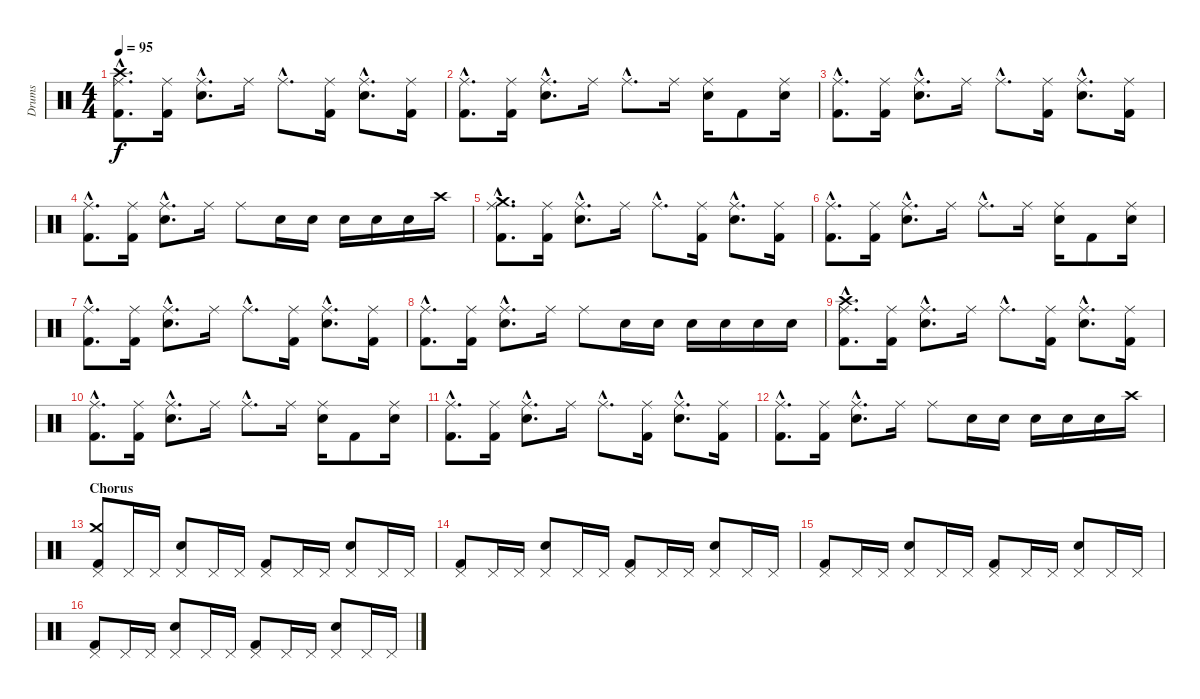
\track ("Drums" "Drums") {instrument percussion}
\staff {score}
\articulation defaults
\ts (4 4)
\tempo 95
\clef neutral
\ks c
("Ride (middle)"{hac} "Crash high (hit)"{hac} "Kick (hit) 2"{hac}).8{d dy f} ("Ride (middle)" "Kick (hit) 2").16 ("Ride (middle)"{hac} "Snare (hit) 2"{hac}).8{d} "Ride (middle)".16 "Ride (middle)"{hac}.8{d} ("Ride (middle)" "Kick (hit) 2").16 ("Ride (middle)"{hac} "Snare (hit) 2"{hac}).8{d} ("Ride (middle)" "Kick (hit) 2").16 |
("Ride (middle)"{hac} "Kick (hit) 2"{hac}).8{d} ("Ride (middle)" "Kick (hit) 2").16 ("Ride (middle)"{hac} "Snare (hit) 2"{hac}).8{d} "Ride (middle)".16 "Ride (middle)"{hac}.8{d} "Ride (middle)".16 ("Ride (middle)" "Snare (hit) 2").16 "Kick (hit) 2".8 ("Ride (middle)" "Snare (hit) 2").16 |
("Ride (middle)"{hac} "Kick (hit) 2"{hac}).8{d} ("Ride (middle)" "Kick (hit) 2").16 ("Ride (middle)"{hac} "Snare (hit) 2"{hac}).8{d} "Ride (middle)".16 "Ride (middle)"{hac}.8{d} ("Ride (middle)" "Kick (hit) 2").16 ("Ride (middle)"{hac} "Snare (hit) 2"{hac}).8{d} ("Ride (middle)" "Kick (hit) 2").16 |
("Ride (middle)"{hac} "Kick (hit) 2"{hac}).8{d} ("Ride (middle)" "Kick (hit) 2").16 ("Ride (middle)"{hac} "Snare (hit) 2"{hac}).8{d} "Ride (middle)".16 "Ride (middle)".8 "Snare (hit) 2".16 "Snare (hit) 2".16 "Snare (hit) 2".16 "Snare (hit) 2".16 "Snare (hit) 2".16 "Crash high (hit)".16 |
("Ride (middle)"{hac} "Crash medium (hit)"{hac} "Kick (hit) 2"{hac}).8{d} ("Ride (middle)" "Kick (hit) 2").16 ("Ride (middle)"{hac} "Snare (hit) 2"{hac}).8{d} "Ride (middle)".16 "Ride (middle)"{hac}.8{d} ("Ride (middle)" "Kick (hit) 2").16 ("Ride (middle)"{hac} "Snare (hit) 2"{hac}).8{d} ("Ride (middle)" "Kick (hit) 2").16 |
("Ride (middle)"{hac} "Kick (hit) 2"{hac}).8{d} ("Ride (middle)" "Kick (hit) 2").16 ("Ride (middle)"{hac} "Snare (hit) 2"{hac}).8{d} "Ride (middle)".16 "Ride (middle)"{hac}.8{d} "Ride (middle)".16 ("Ride (middle)" "Snare (hit) 2").16 "Kick (hit) 2".8 ("Ride (middle)" "Snare (hit) 2").16 |
("Ride (middle)"{hac} "Kick (hit) 2"{hac}).8{d} ("Ride (middle)" "Kick (hit) 2").16 ("Ride (middle)"{hac} "Snare (hit) 2"{hac}).8{d} "Ride (middle)".16 "Ride (middle)"{hac}.8{d} ("Ride (middle)" "Kick (hit) 2").16 ("Ride (middle)"{hac} "Snare (hit) 2"{hac}).8{d} ("Ride (middle)" "Kick (hit) 2").16 |
("Ride (middle)"{hac} "Kick (hit) 2"{hac}).8{d} ("Ride (middle)" "Kick (hit) 2").16 ("Ride (middle)"{hac} "Snare (hit) 2"{hac}).8{d} "Ride (middle)".16 "Ride (middle)".8 "Snare (hit) 2".16 "Snare (hit) 2".16 "Snare (hit) 2".16 "Snare (hit) 2".16 "Snare (hit) 2".16 "Snare (hit) 2".16 |
("Ride (middle)"{hac} "Crash high (hit)"{hac} "Kick (hit) 2"{hac}).8{d} ("Ride (middle)" "Kick (hit) 2").16 ("Ride (middle)"{hac} "Snare (hit) 2"{hac}).8{d} "Ride (middle)".16 "Ride (middle)"{hac}.8{d} ("Ride (middle)" "Kick (hit) 2").16 ("Ride (middle)"{hac} "Snare (hit) 2"{hac}).8{d} ("Ride (middle)" "Kick (hit) 2").16 |
("Ride (middle)"{hac} "Kick (hit) 2"{hac}).8{d} ("Ride (middle)" "Kick (hit) 2").16 ("Ride (middle)"{hac} "Snare (hit) 2"{hac}).8{d} "Ride (middle)".16 "Ride (middle)"{hac}.8{d} "Ride (middle)".16 ("Ride (middle)" "Snare (hit) 2").16 "Kick (hit) 2".8 ("Ride (middle)" "Snare (hit) 2").16 |
("Ride (middle)"{hac} "Kick (hit) 2"{hac}).8{d} ("Ride (middle)" "Kick (hit) 2").16 ("Ride (middle)"{hac} "Snare (hit) 2"{hac}).8{d} "Ride (middle)".16 "Ride (middle)"{hac}.8{d} ("Ride (middle)" "Kick (hit) 2").16 ("Ride (middle)"{hac} "Snare (hit) 2"{hac}).8{d} ("Ride (middle)" "Kick (hit) 2").16 |
("Ride (middle)"{hac} "Kick (hit) 2"{hac}).8{d} ("Ride (middle)" "Kick (hit) 2").16 ("Ride (middle)"{hac} "Snare (hit) 2"{hac}).8{d} "Ride (middle)".16 "Ride (middle)".8 "Snare (hit) 2".16 "Snare (hit) 2".16 "Snare (hit) 2".16 "Snare (hit) 2".16 "Snare (hit) 2".16 "Crash high (hit)".16 |
\section ("" "Chorus")
("Crash medium (hit)" "Pedal Hi-Hat (hit)" "Kick (hit) 2").8 "Pedal Hi-Hat (hit)".16 "Pedal Hi-Hat (hit)".16 ("Pedal Hi-Hat (hit)" "Snare (hit) 2").8 "Pedal Hi-Hat (hit)".16 "Pedal Hi-Hat (hit)".16 ("Pedal Hi-Hat (hit)" "Kick (hit) 2").8 "Pedal Hi-Hat (hit)".16 "Pedal Hi-Hat (hit)".16 ("Pedal Hi-Hat (hit)" "Snare (hit) 2").8 "Pedal Hi-Hat (hit)".16 "Pedal Hi-Hat (hit)".16 |
("Pedal Hi-Hat (hit)" "Kick (hit) 2").8 "Pedal Hi-Hat (hit)".16 "Pedal Hi-Hat (hit)".16 ("Pedal Hi-Hat (hit)" "Snare (hit) 2").8 "Pedal Hi-Hat (hit)".16 "Pedal Hi-Hat (hit)".16 ("Pedal Hi-Hat (hit)" "Kick (hit) 2").8 "Pedal Hi-Hat (hit)".16 "Pedal Hi-Hat (hit)".16 ("Pedal Hi-Hat (hit)" "Snare (hit) 2").8 "Pedal Hi-Hat (hit)".16 "Pedal Hi-Hat (hit)".16 |
("Pedal Hi-Hat (hit)" "Kick (hit) 2").8 "Pedal Hi-Hat (hit)".16 "Pedal Hi-Hat (hit)".16 ("Pedal Hi-Hat (hit)" "Snare (hit) 2").8 "Pedal Hi-Hat (hit)".16 "Pedal Hi-Hat (hit)".16 ("Pedal Hi-Hat (hit)" "Kick (hit) 2").8 "Pedal Hi-Hat (hit)".16 "Pedal Hi-Hat (hit)".16 ("Pedal Hi-Hat (hit)" "Snare (hit) 2").8 "Pedal Hi-Hat (hit)".16 "Pedal Hi-Hat (hit)".16 |
("Pedal Hi-Hat (hit)" "Kick (hit) 2").8 "Pedal Hi-Hat (hit)".16 "Pedal Hi-Hat (hit)".16 ("Pedal Hi-Hat (hit)" "Snare (hit) 2").8 "Pedal Hi-Hat (hit)".16 "Pedal Hi-Hat (hit)".16 ("Pedal Hi-Hat (hit)" "Kick (hit) 2").8 "Pedal Hi-Hat (hit)".16 "Pedal Hi-Hat (hit)".16 ("Pedal Hi-Hat (hit)" "Snare (hit) 2").8 "Pedal Hi-Hat (hit)".16 "Pedal Hi-Hat (hit)".16
